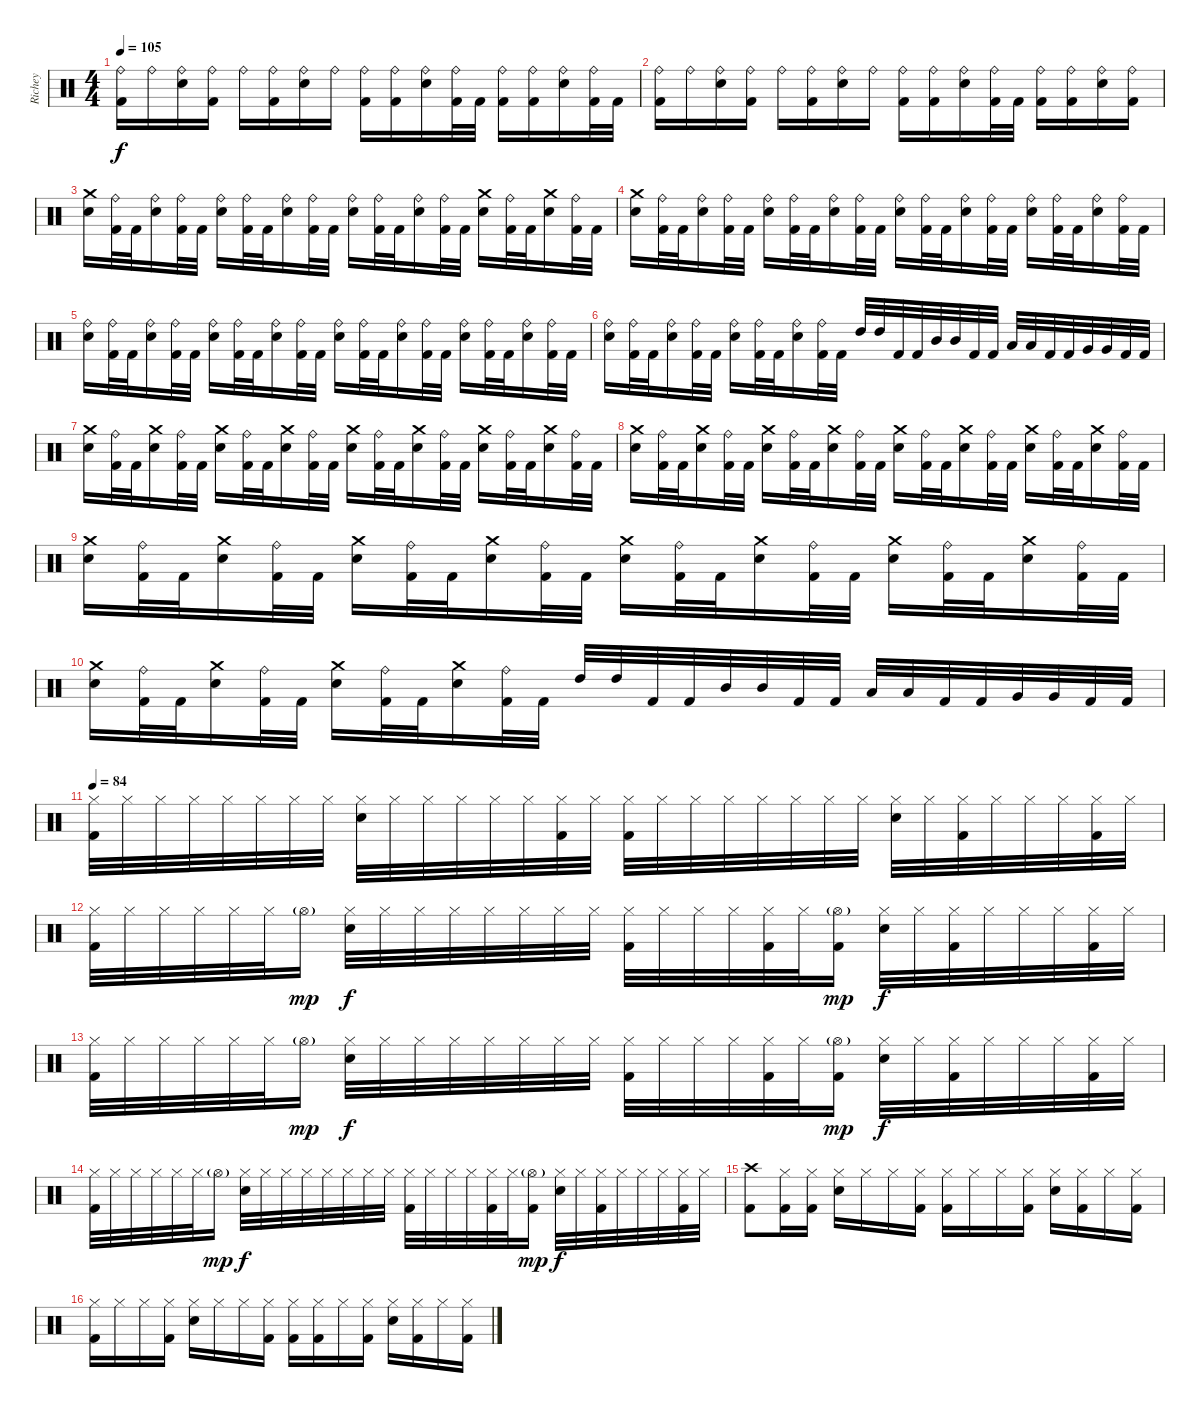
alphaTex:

\track ("Richey" "Richey") {instrument percussion}
\staff {score}
\articulation defaults
\ts (4 4)
\tempo 105
\clef neutral
\ks c
("Ride (bell)" "Kick (hit) 2").16{dy f} "Ride (bell)".16 ("Ride (bell)" "Snare (hit) 2").16 ("Ride (bell)" "Kick (hit) 2").16 "Ride (bell)".16 ("Ride (bell)" "Kick (hit) 2").16 ("Ride (bell)" "Snare (hit) 2").16 "Ride (bell)".16 ("Ride (bell)" "Kick (hit) 2").16 ("Ride (bell)" "Kick (hit) 2").16 ("Ride (bell)" "Snare (hit) 2").16 ("Ride (bell)" "Kick (hit) 2").32 "Kick (hit) 2".32 ("Ride (bell)" "Kick (hit) 2").16 ("Ride (bell)" "Kick (hit) 2").16 ("Ride (bell)" "Snare (hit) 2").16 ("Ride (bell)" "Kick (hit) 2").32 "Kick (hit) 2".32 |
("Ride (bell)" "Kick (hit) 2").16 "Ride (bell)".16 ("Ride (bell)" "Snare (hit) 2").16 ("Ride (bell)" "Kick (hit) 2").16 "Ride (bell)".16 ("Ride (bell)" "Kick (hit) 2").16 ("Ride (bell)" "Snare (hit) 2").16 "Ride (bell)".16 ("Ride (bell)" "Kick (hit) 2").16 ("Ride (bell)" "Kick (hit) 2").16 ("Ride (bell)" "Snare (hit) 2").16 ("Ride (bell)" "Kick (hit) 2").32 "Kick (hit) 2".32 ("Ride (bell)" "Kick (hit) 2").16 ("Ride (bell)" "Kick (hit) 2").16 ("Ride (bell)" "Snare (hit) 2").16 ("Ride (bell)" "Kick (hit) 2").16 |
("Crash medium (hit)" "Snare (hit) 2").16 ("Ride (bell)" "Kick (hit) 2").32 "Kick (hit) 2".32 ("Ride (bell)" "Snare (hit) 2").16 ("Ride (bell)" "Kick (hit) 2").32 "Kick (hit) 2".32 ("Ride (bell)" "Snare (hit) 2").16 ("Ride (bell)" "Kick (hit) 2").32 "Kick (hit) 2".32 ("Ride (bell)" "Snare (hit) 2").16 ("Ride (bell)" "Kick (hit) 2").32 "Kick (hit) 2".32 ("Ride (bell)" "Snare (hit) 2").16 ("Ride (bell)" "Kick (hit) 2").32 "Kick (hit) 2".32 ("Ride (bell)" "Snare (hit) 2").16 ("Ride (bell)" "Kick (hit) 2").32 "Kick (hit) 2".32 ("Crash medium (hit)" "Snare (hit) 2").16 ("Ride (bell)" "Kick (hit) 2").32 "Kick (hit) 2".32 ("Crash medium (hit)" "Snare (hit) 2").16 ("Ride (bell)" "Kick (hit) 2").32 "Kick (hit) 2".32 |
("Crash medium (hit)" "Snare (hit) 2").16 ("Ride (bell)" "Kick (hit) 2").32 "Kick (hit) 2".32 ("Ride (bell)" "Snare (hit) 2").16 ("Ride (bell)" "Kick (hit) 2").32 "Kick (hit) 2".32 ("Ride (bell)" "Snare (hit) 2").16 ("Ride (bell)" "Kick (hit) 2").32 "Kick (hit) 2".32 ("Ride (bell)" "Snare (hit) 2").16 ("Ride (bell)" "Kick (hit) 2").32 "Kick (hit) 2".32 ("Ride (bell)" "Snare (hit) 2").16 ("Ride (bell)" "Kick (hit) 2").32 "Kick (hit) 2".32 ("Ride (bell)" "Snare (hit) 2").16 ("Ride (bell)" "Kick (hit) 2").32 "Kick (hit) 2".32 ("Ride (bell)" "Snare (hit) 2").16 ("Ride (bell)" "Kick (hit) 2").32 "Kick (hit) 2".32 ("Ride (bell)" "Snare (hit) 2").16 ("Ride (bell)" "Kick (hit) 2").32 "Kick (hit) 2".32 |
("Ride (bell)" "Snare (hit) 2").16 ("Ride (bell)" "Kick (hit) 2").32 "Kick (hit) 2".32 ("Ride (bell)" "Snare (hit) 2").16 ("Ride (bell)" "Kick (hit) 2").32 "Kick (hit) 2".32 ("Ride (bell)" "Snare (hit) 2").16 ("Ride (bell)" "Kick (hit) 2").32 "Kick (hit) 2".32 ("Ride (bell)" "Snare (hit) 2").16 ("Ride (bell)" "Kick (hit) 2").32 "Kick (hit) 2".32 ("Ride (bell)" "Snare (hit) 2").16 ("Ride (bell)" "Kick (hit) 2").32 "Kick (hit) 2".32 ("Ride (bell)" "Snare (hit) 2").16 ("Ride (bell)" "Kick (hit) 2").32 "Kick (hit) 2".32 ("Ride (bell)" "Snare (hit) 2").16 ("Ride (bell)" "Kick (hit) 2").32 "Kick (hit) 2".32 ("Ride (bell)" "Snare (hit) 2").16 ("Ride (bell)" "Kick (hit) 2").32 "Kick (hit) 2".32 |
("Ride (bell)" "Snare (hit) 2").16 ("Ride (bell)" "Kick (hit) 2").32 "Kick (hit) 2".32 ("Ride (bell)" "Snare (hit) 2").16 ("Ride (bell)" "Kick (hit) 2").32 "Kick (hit) 2".32 ("Ride (bell)" "Snare (hit) 2").16 ("Ride (bell)" "Kick (hit) 2").32 "Kick (hit) 2".32 ("Ride (bell)" "Snare (hit) 2").16 ("Ride (bell)" "Kick (hit) 2").32 "Kick (hit) 2".32 "High Tom (hit)".32 "High Tom (hit)".32 "Kick (hit) 2".32 "Kick (hit) 2".32 "Mid Tom (hit)".32 "Mid Tom (hit)".32 "Kick (hit) 2".32 "Kick (hit) 2".32 "Low Tom (hit)".32 "Low Tom (hit)".32 "Kick (hit) 2".32 "Kick (hit) 2".32 "Very Low Tom (hit)".32 "Very Low Tom (hit)".32 "Kick (hit) 2".32 "Kick (hit) 2".32 |
("Crash medium (hit)" "Snare (hit) 2").16 ("Ride (bell)" "Kick (hit) 2").32 "Kick (hit) 2".32 ("Crash medium (hit)" "Snare (hit) 2").16 ("Ride (bell)" "Kick (hit) 2").32 "Kick (hit) 2".32 ("Crash medium (hit)" "Snare (hit) 2").16 ("Ride (bell)" "Kick (hit) 2").32 "Kick (hit) 2".32 ("Crash medium (hit)" "Snare (hit) 2").16 ("Ride (bell)" "Kick (hit) 2").32 "Kick (hit) 2".32 ("Crash medium (hit)" "Snare (hit) 2").16 ("Ride (bell)" "Kick (hit) 2").32 "Kick (hit) 2".32 ("Crash medium (hit)" "Snare (hit) 2").16 ("Ride (bell)" "Kick (hit) 2").32 "Kick (hit) 2".32 ("Crash medium (hit)" "Snare (hit) 2").16 ("Ride (bell)" "Kick (hit) 2").32 "Kick (hit) 2".32 ("Crash medium (hit)" "Snare (hit) 2").16 ("Ride (bell)" "Kick (hit) 2").32 "Kick (hit) 2".32 |
("Crash medium (hit)" "Snare (hit) 2").16 ("Ride (bell)" "Kick (hit) 2").32 "Kick (hit) 2".32 ("Crash medium (hit)" "Snare (hit) 2").16 ("Ride (bell)" "Kick (hit) 2").32 "Kick (hit) 2".32 ("Crash medium (hit)" "Snare (hit) 2").16 ("Ride (bell)" "Kick (hit) 2").32 "Kick (hit) 2".32 ("Crash medium (hit)" "Snare (hit) 2").16 ("Ride (bell)" "Kick (hit) 2").32 "Kick (hit) 2".32 ("Crash medium (hit)" "Snare (hit) 2").16 ("Ride (bell)" "Kick (hit) 2").32 "Kick (hit) 2".32 ("Crash medium (hit)" "Snare (hit) 2").16 ("Ride (bell)" "Kick (hit) 2").32 "Kick (hit) 2".32 ("Crash medium (hit)" "Snare (hit) 2").16 ("Ride (bell)" "Kick (hit) 2").32 "Kick (hit) 2".32 ("Crash medium (hit)" "Snare (hit) 2").16 ("Ride (bell)" "Kick (hit) 2").32 "Kick (hit) 2".32 |
("Crash medium (hit)" "Snare (hit) 2").16 ("Ride (bell)" "Kick (hit) 2").32 "Kick (hit) 2".32 ("Crash medium (hit)" "Snare (hit) 2").16 ("Ride (bell)" "Kick (hit) 2").32 "Kick (hit) 2".32 ("Crash medium (hit)" "Snare (hit) 2").16 ("Ride (bell)" "Kick (hit) 2").32 "Kick (hit) 2".32 ("Crash medium (hit)" "Snare (hit) 2").16 ("Ride (bell)" "Kick (hit) 2").32 "Kick (hit) 2".32 ("Crash medium (hit)" "Snare (hit) 2").16 ("Ride (bell)" "Kick (hit) 2").32 "Kick (hit) 2".32 ("Crash medium (hit)" "Snare (hit) 2").16 ("Ride (bell)" "Kick (hit) 2").32 "Kick (hit) 2".32 ("Crash medium (hit)" "Snare (hit) 2").16 ("Ride (bell)" "Kick (hit) 2").32 "Kick (hit) 2".32 ("Crash medium (hit)" "Snare (hit) 2").16 ("Ride (bell)" "Kick (hit) 2").32 "Kick (hit) 2".32 |
("Crash medium (hit)" "Snare (hit) 2").16 ("Ride (bell)" "Kick (hit) 2").32 "Kick (hit) 2".32 ("Crash medium (hit)" "Snare (hit) 2").16 ("Ride (bell)" "Kick (hit) 2").32 "Kick (hit) 2".32 ("Crash medium (hit)" "Snare (hit) 2").16 ("Ride (bell)" "Kick (hit) 2").32 "Kick (hit) 2".32 ("Crash medium (hit)" "Snare (hit) 2").16 ("Ride (bell)" "Kick (hit) 2").32 "Kick (hit) 2".32 "High Tom (hit)".32 "High Tom (hit)".32 "Kick (hit) 2".32 "Kick (hit) 2".32 "Mid Tom (hit)".32 "Mid Tom (hit)".32 "Kick (hit) 2".32 "Kick (hit) 2".32 "Low Tom (hit)".32 "Low Tom (hit)".32 "Kick (hit) 2".32 "Kick (hit) 2".32 "Very Low Tom (hit)".32 "Very Low Tom (hit)".32 "Kick (hit) 2".32 "Kick (hit) 2".32 |
\tempo 84
("Hi-Hat (closed)" "Kick (hit) 2").32 "Hi-Hat (closed)".32 "Hi-Hat (closed)".32 "Hi-Hat (closed)".32 "Hi-Hat (closed)".32 "Hi-Hat (closed)".32 "Hi-Hat (closed)".32 "Hi-Hat (closed)".32 ("Hi-Hat (closed)" "Snare (hit) 2").32 "Hi-Hat (closed)".32 "Hi-Hat (closed)".32 "Hi-Hat (closed)".32 "Hi-Hat (closed)".32 "Hi-Hat (closed)".32 ("Hi-Hat (closed)" "Kick (hit) 2").32 "Hi-Hat (closed)".32 ("Hi-Hat (closed)" "Kick (hit) 2").32 "Hi-Hat (closed)".32 "Hi-Hat (closed)".32 "Hi-Hat (closed)".32 "Hi-Hat (closed)".32 "Hi-Hat (closed)".32 "Hi-Hat (closed)".32 "Hi-Hat (closed)".32 ("Hi-Hat (closed)" "Snare (hit) 2").32 "Hi-Hat (closed)".32 ("Hi-Hat (closed)" "Kick (hit) 2").32 "Hi-Hat (closed)".32 "Hi-Hat (closed)".32 "Hi-Hat (closed)".32 ("Hi-Hat (closed)" "Kick (hit) 2").32 "Hi-Hat (closed)".32 |
("Hi-Hat (closed)" "Kick (hit) 2").32 "Hi-Hat (closed)".32 "Hi-Hat (closed)".32 "Hi-Hat (closed)".32 "Hi-Hat (closed)".32 "Hi-Hat (closed)".32 "Hi-Hat (open)"{g}.16{dy mp} ("Hi-Hat (closed)" "Snare (hit) 2").32{dy f} "Hi-Hat (closed)".32 "Hi-Hat (closed)".32 "Hi-Hat (closed)".32 "Hi-Hat (closed)".32 "Hi-Hat (closed)".32 "Hi-Hat (closed)".32 "Hi-Hat (closed)".32 ("Hi-Hat (closed)" "Kick (hit) 2").32 "Hi-Hat (closed)".32 "Hi-Hat (closed)".32 "Hi-Hat (closed)".32 ("Hi-Hat (closed)" "Kick (hit) 2").32 "Hi-Hat (closed)".32 ("Hi-Hat (open)"{g} "Kick (hit) 2").16{dy mp} ("Hi-Hat (closed)" "Snare (hit) 2").32{dy f} "Hi-Hat (closed)".32 ("Hi-Hat (closed)" "Kick (hit) 2").32 "Hi-Hat (closed)".32 "Hi-Hat (closed)".32 "Hi-Hat (closed)".32 ("Hi-Hat (closed)" "Kick (hit) 2").32 "Hi-Hat (closed)".32 |
("Hi-Hat (closed)" "Kick (hit) 2").32 "Hi-Hat (closed)".32 "Hi-Hat (closed)".32 "Hi-Hat (closed)".32 "Hi-Hat (closed)".32 "Hi-Hat (closed)".32 "Hi-Hat (open)"{g}.16{dy mp} ("Hi-Hat (closed)" "Snare (hit) 2").32{dy f} "Hi-Hat (closed)".32 "Hi-Hat (closed)".32 "Hi-Hat (closed)".32 "Hi-Hat (closed)".32 "Hi-Hat (closed)".32 "Hi-Hat (closed)".32 "Hi-Hat (closed)".32 ("Hi-Hat (closed)" "Kick (hit) 2").32 "Hi-Hat (closed)".32 "Hi-Hat (closed)".32 "Hi-Hat (closed)".32 ("Hi-Hat (closed)" "Kick (hit) 2").32 "Hi-Hat (closed)".32 ("Hi-Hat (open)"{g} "Kick (hit) 2").16{dy mp} ("Hi-Hat (closed)" "Snare (hit) 2").32{dy f} "Hi-Hat (closed)".32 ("Hi-Hat (closed)" "Kick (hit) 2").32 "Hi-Hat (closed)".32 "Hi-Hat (closed)".32 "Hi-Hat (closed)".32 ("Hi-Hat (closed)" "Kick (hit) 2").32 "Hi-Hat (closed)".32 |
("Hi-Hat (closed)" "Kick (hit) 2").32 "Hi-Hat (closed)".32 "Hi-Hat (closed)".32 "Hi-Hat (closed)".32 "Hi-Hat (closed)".32 "Hi-Hat (closed)".32 "Hi-Hat (open)"{g}.16{dy mp} ("Hi-Hat (closed)" "Snare (hit) 2").32{dy f} "Hi-Hat (closed)".32 "Hi-Hat (closed)".32 "Hi-Hat (closed)".32 "Hi-Hat (closed)".32 "Hi-Hat (closed)".32 "Hi-Hat (closed)".32 "Hi-Hat (closed)".32 ("Hi-Hat (closed)" "Kick (hit) 2").32 "Hi-Hat (closed)".32 "Hi-Hat (closed)".32 "Hi-Hat (closed)".32 ("Hi-Hat (closed)" "Kick (hit) 2").32 "Hi-Hat (closed)".32 ("Hi-Hat (open)"{g} "Kick (hit) 2").16{dy mp} ("Hi-Hat (closed)" "Snare (hit) 2").32{dy f} "Hi-Hat (closed)".32 ("Hi-Hat (closed)" "Kick (hit) 2").32 "Hi-Hat (closed)".32 "Hi-Hat (closed)".32 "Hi-Hat (closed)".32 ("Hi-Hat (closed)" "Kick (hit) 2").32 "Hi-Hat (closed)".32 |
("Crash high (hit)" "Kick (hit) 2").8 ("Hi-Hat (closed)" "Kick (hit) 2").16 ("Hi-Hat (closed)" "Kick (hit) 2").16 ("Hi-Hat (closed)" "Snare (hit) 2").16 "Hi-Hat (closed)".16 "Hi-Hat (closed)".16 ("Hi-Hat (closed)" "Kick (hit) 2").16 ("Hi-Hat (closed)" "Kick (hit) 2").16 "Hi-Hat (closed)".16 "Hi-Hat (closed)".16 ("Hi-Hat (closed)" "Kick (hit) 2").16 ("Hi-Hat (closed)" "Snare (hit) 2").16 ("Hi-Hat (closed)" "Kick (hit) 2").16 "Hi-Hat (closed)".16 ("Hi-Hat (closed)" "Kick (hit) 2").16 |
("Hi-Hat (closed)" "Kick (hit) 2").16 "Hi-Hat (closed)".16 "Hi-Hat (closed)".16 ("Hi-Hat (closed)" "Kick (hit) 2").16 ("Hi-Hat (closed)" "Snare (hit) 2").16 "Hi-Hat (closed)".16 "Hi-Hat (closed)".16 ("Hi-Hat (closed)" "Kick (hit) 2").16 ("Hi-Hat (closed)" "Kick (hit) 2").16 ("Hi-Hat (closed)" "Kick (hit) 2").16 "Hi-Hat (closed)".16 ("Hi-Hat (closed)" "Kick (hit) 2").16 ("Hi-Hat (closed)" "Snare (hit) 2").16 ("Hi-Hat (closed)" "Kick (hit) 2").16 "Hi-Hat (closed)".16 ("Hi-Hat (closed)" "Kick (hit) 2").16
